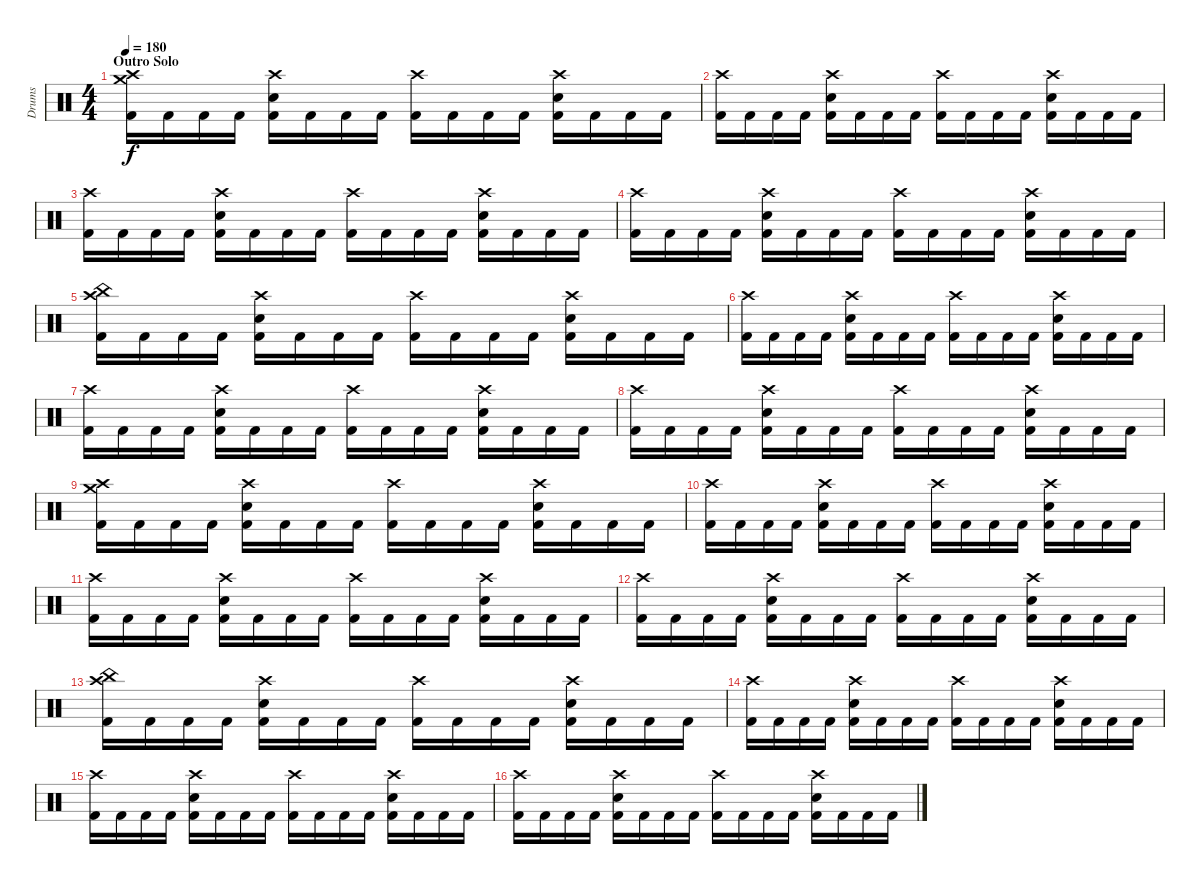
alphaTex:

\track ("Drums" "Drums") {instrument percussion}
\staff {score}
\articulation defaults
\ts (4 4)
\section ("" "Outro Solo")
\tempo 180
\clef neutral
\ks c
("Crash high (hit)" "Crash medium (hit)" "Kick (hit) 2").16{dy f} "Kick (hit) 2".16 "Kick (hit) 2".16 "Kick (hit) 2".16 ("Crash high (hit)" "Electric Snare (hit)" "Kick (hit) 2").16 "Kick (hit) 2".16 "Kick (hit) 2".16 "Kick (hit) 2".16 ("Crash high (hit)" "Kick (hit) 2").16 "Kick (hit) 2".16 "Kick (hit) 2".16 "Kick (hit) 2".16 ("Crash high (hit)" "Electric Snare (hit)" "Kick (hit) 2").16 "Kick (hit) 2".16 "Kick (hit) 2".16 "Kick (hit) 2".16 |
("Crash high (hit)" "Kick (hit) 2").16 "Kick (hit) 2".16 "Kick (hit) 2".16 "Kick (hit) 2".16 ("Crash high (hit)" "Electric Snare (hit)" "Kick (hit) 2").16 "Kick (hit) 2".16 "Kick (hit) 2".16 "Kick (hit) 2".16 ("Crash high (hit)" "Kick (hit) 2").16 "Kick (hit) 2".16 "Kick (hit) 2".16 "Kick (hit) 2".16 ("Crash high (hit)" "Electric Snare (hit)" "Kick (hit) 2").16 "Kick (hit) 2".16 "Kick (hit) 2".16 "Kick (hit) 2".16 |
("Crash high (hit)" "Kick (hit) 2").16 "Kick (hit) 2".16 "Kick (hit) 2".16 "Kick (hit) 2".16 ("Crash high (hit)" "Electric Snare (hit)" "Kick (hit) 2").16 "Kick (hit) 2".16 "Kick (hit) 2".16 "Kick (hit) 2".16 ("Crash high (hit)" "Kick (hit) 2").16 "Kick (hit) 2".16 "Kick (hit) 2".16 "Kick (hit) 2".16 ("Crash high (hit)" "Electric Snare (hit)" "Kick (hit) 2").16 "Kick (hit) 2".16 "Kick (hit) 2".16 "Kick (hit) 2".16 |
("Crash high (hit)" "Kick (hit) 2").16 "Kick (hit) 2".16 "Kick (hit) 2".16 "Kick (hit) 2".16 ("Crash high (hit)" "Electric Snare (hit)" "Kick (hit) 2").16 "Kick (hit) 2".16 "Kick (hit) 2".16 "Kick (hit) 2".16 ("Crash high (hit)" "Kick (hit) 2").16 "Kick (hit) 2".16 "Kick (hit) 2".16 "Kick (hit) 2".16 ("Crash high (hit)" "Electric Snare (hit)" "Kick (hit) 2").16 "Kick (hit) 2".16 "Kick (hit) 2".16 "Kick (hit) 2".16 |
("Crash high (hit)" "China (hit)" "Kick (hit) 2").16 "Kick (hit) 2".16 "Kick (hit) 2".16 "Kick (hit) 2".16 ("Crash high (hit)" "Electric Snare (hit)" "Kick (hit) 2").16 "Kick (hit) 2".16 "Kick (hit) 2".16 "Kick (hit) 2".16 ("Crash high (hit)" "Kick (hit) 2").16 "Kick (hit) 2".16 "Kick (hit) 2".16 "Kick (hit) 2".16 ("Crash high (hit)" "Electric Snare (hit)" "Kick (hit) 2").16 "Kick (hit) 2".16 "Kick (hit) 2".16 "Kick (hit) 2".16 |
("Crash high (hit)" "Kick (hit) 2").16 "Kick (hit) 2".16 "Kick (hit) 2".16 "Kick (hit) 2".16 ("Crash high (hit)" "Electric Snare (hit)" "Kick (hit) 2").16 "Kick (hit) 2".16 "Kick (hit) 2".16 "Kick (hit) 2".16 ("Crash high (hit)" "Kick (hit) 2").16 "Kick (hit) 2".16 "Kick (hit) 2".16 "Kick (hit) 2".16 ("Crash high (hit)" "Electric Snare (hit)" "Kick (hit) 2").16 "Kick (hit) 2".16 "Kick (hit) 2".16 "Kick (hit) 2".16 |
("Crash high (hit)" "Kick (hit) 2").16 "Kick (hit) 2".16 "Kick (hit) 2".16 "Kick (hit) 2".16 ("Crash high (hit)" "Electric Snare (hit)" "Kick (hit) 2").16 "Kick (hit) 2".16 "Kick (hit) 2".16 "Kick (hit) 2".16 ("Crash high (hit)" "Kick (hit) 2").16 "Kick (hit) 2".16 "Kick (hit) 2".16 "Kick (hit) 2".16 ("Crash high (hit)" "Electric Snare (hit)" "Kick (hit) 2").16 "Kick (hit) 2".16 "Kick (hit) 2".16 "Kick (hit) 2".16 |
("Crash high (hit)" "Kick (hit) 2").16 "Kick (hit) 2".16 "Kick (hit) 2".16 "Kick (hit) 2".16 ("Crash high (hit)" "Electric Snare (hit)" "Kick (hit) 2").16 "Kick (hit) 2".16 "Kick (hit) 2".16 "Kick (hit) 2".16 ("Crash high (hit)" "Kick (hit) 2").16 "Kick (hit) 2".16 "Kick (hit) 2".16 "Kick (hit) 2".16 ("Crash high (hit)" "Electric Snare (hit)" "Kick (hit) 2").16 "Kick (hit) 2".16 "Kick (hit) 2".16 "Kick (hit) 2".16 |
("Crash high (hit)" "Crash medium (hit)" "Kick (hit) 2").16 "Kick (hit) 2".16 "Kick (hit) 2".16 "Kick (hit) 2".16 ("Crash high (hit)" "Electric Snare (hit)" "Kick (hit) 2").16 "Kick (hit) 2".16 "Kick (hit) 2".16 "Kick (hit) 2".16 ("Crash high (hit)" "Kick (hit) 2").16 "Kick (hit) 2".16 "Kick (hit) 2".16 "Kick (hit) 2".16 ("Crash high (hit)" "Electric Snare (hit)" "Kick (hit) 2").16 "Kick (hit) 2".16 "Kick (hit) 2".16 "Kick (hit) 2".16 |
("Crash high (hit)" "Kick (hit) 2").16 "Kick (hit) 2".16 "Kick (hit) 2".16 "Kick (hit) 2".16 ("Crash high (hit)" "Electric Snare (hit)" "Kick (hit) 2").16 "Kick (hit) 2".16 "Kick (hit) 2".16 "Kick (hit) 2".16 ("Crash high (hit)" "Kick (hit) 2").16 "Kick (hit) 2".16 "Kick (hit) 2".16 "Kick (hit) 2".16 ("Crash high (hit)" "Electric Snare (hit)" "Kick (hit) 2").16 "Kick (hit) 2".16 "Kick (hit) 2".16 "Kick (hit) 2".16 |
("Crash high (hit)" "Kick (hit) 2").16 "Kick (hit) 2".16 "Kick (hit) 2".16 "Kick (hit) 2".16 ("Crash high (hit)" "Electric Snare (hit)" "Kick (hit) 2").16 "Kick (hit) 2".16 "Kick (hit) 2".16 "Kick (hit) 2".16 ("Crash high (hit)" "Kick (hit) 2").16 "Kick (hit) 2".16 "Kick (hit) 2".16 "Kick (hit) 2".16 ("Crash high (hit)" "Electric Snare (hit)" "Kick (hit) 2").16 "Kick (hit) 2".16 "Kick (hit) 2".16 "Kick (hit) 2".16 |
("Crash high (hit)" "Kick (hit) 2").16 "Kick (hit) 2".16 "Kick (hit) 2".16 "Kick (hit) 2".16 ("Crash high (hit)" "Electric Snare (hit)" "Kick (hit) 2").16 "Kick (hit) 2".16 "Kick (hit) 2".16 "Kick (hit) 2".16 ("Crash high (hit)" "Kick (hit) 2").16 "Kick (hit) 2".16 "Kick (hit) 2".16 "Kick (hit) 2".16 ("Crash high (hit)" "Electric Snare (hit)" "Kick (hit) 2").16 "Kick (hit) 2".16 "Kick (hit) 2".16 "Kick (hit) 2".16 |
("Crash high (hit)" "China (hit)" "Kick (hit) 2").16 "Kick (hit) 2".16 "Kick (hit) 2".16 "Kick (hit) 2".16 ("Crash high (hit)" "Electric Snare (hit)" "Kick (hit) 2").16 "Kick (hit) 2".16 "Kick (hit) 2".16 "Kick (hit) 2".16 ("Crash high (hit)" "Kick (hit) 2").16 "Kick (hit) 2".16 "Kick (hit) 2".16 "Kick (hit) 2".16 ("Crash high (hit)" "Electric Snare (hit)" "Kick (hit) 2").16 "Kick (hit) 2".16 "Kick (hit) 2".16 "Kick (hit) 2".16 |
("Crash high (hit)" "Kick (hit) 2").16 "Kick (hit) 2".16 "Kick (hit) 2".16 "Kick (hit) 2".16 ("Crash high (hit)" "Electric Snare (hit)" "Kick (hit) 2").16 "Kick (hit) 2".16 "Kick (hit) 2".16 "Kick (hit) 2".16 ("Crash high (hit)" "Kick (hit) 2").16 "Kick (hit) 2".16 "Kick (hit) 2".16 "Kick (hit) 2".16 ("Crash high (hit)" "Electric Snare (hit)" "Kick (hit) 2").16 "Kick (hit) 2".16 "Kick (hit) 2".16 "Kick (hit) 2".16 |
("Crash high (hit)" "Kick (hit) 2").16 "Kick (hit) 2".16 "Kick (hit) 2".16 "Kick (hit) 2".16 ("Crash high (hit)" "Electric Snare (hit)" "Kick (hit) 2").16 "Kick (hit) 2".16 "Kick (hit) 2".16 "Kick (hit) 2".16 ("Crash high (hit)" "Kick (hit) 2").16 "Kick (hit) 2".16 "Kick (hit) 2".16 "Kick (hit) 2".16 ("Crash high (hit)" "Electric Snare (hit)" "Kick (hit) 2").16 "Kick (hit) 2".16 "Kick (hit) 2".16 "Kick (hit) 2".16 |
("Crash high (hit)" "Kick (hit) 2").16 "Kick (hit) 2".16 "Kick (hit) 2".16 "Kick (hit) 2".16 ("Crash high (hit)" "Electric Snare (hit)" "Kick (hit) 2").16 "Kick (hit) 2".16 "Kick (hit) 2".16 "Kick (hit) 2".16 ("Crash high (hit)" "Kick (hit) 2").16 "Kick (hit) 2".16 "Kick (hit) 2".16 "Kick (hit) 2".16 ("Crash high (hit)" "Electric Snare (hit)" "Kick (hit) 2").16 "Kick (hit) 2".16 "Kick (hit) 2".16 "Kick (hit) 2".16
